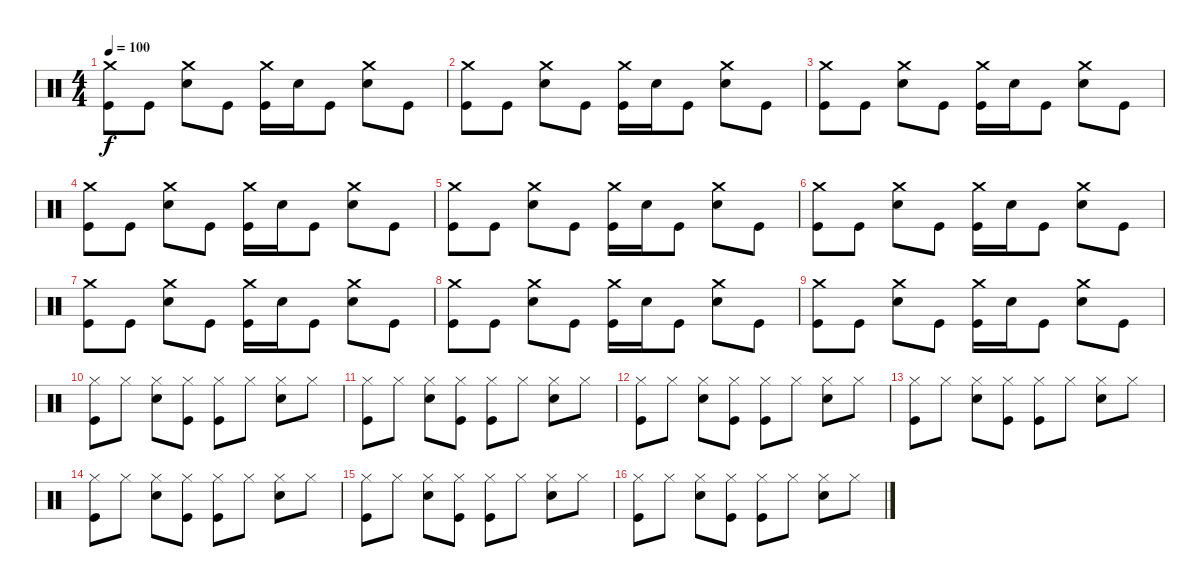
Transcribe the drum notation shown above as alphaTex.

\track "" {instrument percussion}
\staff {score}
\articulation defaults
\ts (4 4)
\tempo 100
\clef neutral
\ks c
("Crash medium (hit)" "Kick (hit)").8{dy f} "Kick (hit)".8 ("Crash medium (hit)" "Electric Snare (hit)").8 "Kick (hit)".8 ("Crash medium (hit)" "Kick (hit)").16 "Electric Snare (hit)".16 "Kick (hit)".8 ("Crash medium (hit)" "Electric Snare (hit)").8 "Kick (hit)".8 |
("Crash medium (hit)" "Kick (hit)").8 "Kick (hit)".8 ("Crash medium (hit)" "Electric Snare (hit)").8 "Kick (hit)".8 ("Crash medium (hit)" "Kick (hit)").16 "Electric Snare (hit)".16 "Kick (hit)".8 ("Crash medium (hit)" "Electric Snare (hit)").8 "Kick (hit)".8 |
("Crash medium (hit)" "Kick (hit)").8 "Kick (hit)".8 ("Crash medium (hit)" "Electric Snare (hit)").8 "Kick (hit)".8 ("Crash medium (hit)" "Kick (hit)").16 "Electric Snare (hit)".16 "Kick (hit)".8 ("Crash medium (hit)" "Electric Snare (hit)").8 "Kick (hit)".8 |
("Crash medium (hit)" "Kick (hit)").8 "Kick (hit)".8 ("Crash medium (hit)" "Electric Snare (hit)").8 "Kick (hit)".8 ("Crash medium (hit)" "Kick (hit)").16 "Electric Snare (hit)".16 "Kick (hit)".8 ("Crash medium (hit)" "Electric Snare (hit)").8 "Kick (hit)".8 |
("Crash medium (hit)" "Kick (hit)").8 "Kick (hit)".8 ("Crash medium (hit)" "Electric Snare (hit)").8 "Kick (hit)".8 ("Crash medium (hit)" "Kick (hit)").16 "Electric Snare (hit)".16 "Kick (hit)".8 ("Crash medium (hit)" "Electric Snare (hit)").8 "Kick (hit)".8 |
("Crash medium (hit)" "Kick (hit)").8 "Kick (hit)".8 ("Crash medium (hit)" "Electric Snare (hit)").8 "Kick (hit)".8 ("Crash medium (hit)" "Kick (hit)").16 "Electric Snare (hit)".16 "Kick (hit)".8 ("Crash medium (hit)" "Electric Snare (hit)").8 "Kick (hit)".8 |
("Crash medium (hit)" "Kick (hit)").8 "Kick (hit)".8 ("Crash medium (hit)" "Electric Snare (hit)").8 "Kick (hit)".8 ("Crash medium (hit)" "Kick (hit)").16 "Electric Snare (hit)".16 "Kick (hit)".8 ("Crash medium (hit)" "Electric Snare (hit)").8 "Kick (hit)".8 |
("Crash medium (hit)" "Kick (hit)").8 "Kick (hit)".8 ("Crash medium (hit)" "Electric Snare (hit)").8 "Kick (hit)".8 ("Crash medium (hit)" "Kick (hit)").16 "Electric Snare (hit)".16 "Kick (hit)".8 ("Crash medium (hit)" "Electric Snare (hit)").8 "Kick (hit)".8 |
("Crash medium (hit)" "Kick (hit)").8 "Kick (hit)".8 ("Crash medium (hit)" "Electric Snare (hit)").8 "Kick (hit)".8 ("Crash medium (hit)" "Kick (hit)").16 "Electric Snare (hit)".16 "Kick (hit)".8 ("Crash medium (hit)" "Electric Snare (hit)").8 "Kick (hit)".8 |
("Hi-Hat (closed)" "Kick (hit)").8 "Hi-Hat (closed)".8 ("Hi-Hat (closed)" "Electric Snare (hit)").8 ("Hi-Hat (closed)" "Kick (hit)").8 ("Hi-Hat (closed)" "Kick (hit)").8 "Hi-Hat (closed)".8 ("Hi-Hat (closed)" "Electric Snare (hit)").8 "Hi-Hat (closed)".8 |
("Hi-Hat (closed)" "Kick (hit)").8 "Hi-Hat (closed)".8 ("Hi-Hat (closed)" "Electric Snare (hit)").8 ("Hi-Hat (closed)" "Kick (hit)").8 ("Hi-Hat (closed)" "Kick (hit)").8 "Hi-Hat (closed)".8 ("Hi-Hat (closed)" "Electric Snare (hit)").8 "Hi-Hat (closed)".8 |
("Hi-Hat (closed)" "Kick (hit)").8 "Hi-Hat (closed)".8 ("Hi-Hat (closed)" "Electric Snare (hit)").8 ("Hi-Hat (closed)" "Kick (hit)").8 ("Hi-Hat (closed)" "Kick (hit)").8 "Hi-Hat (closed)".8 ("Hi-Hat (closed)" "Electric Snare (hit)").8 "Hi-Hat (closed)".8 |
("Hi-Hat (closed)" "Kick (hit)").8 "Hi-Hat (closed)".8 ("Hi-Hat (closed)" "Electric Snare (hit)").8 ("Hi-Hat (closed)" "Kick (hit)").8 ("Hi-Hat (closed)" "Kick (hit)").8 "Hi-Hat (closed)".8 ("Hi-Hat (closed)" "Electric Snare (hit)").8 "Hi-Hat (closed)".8 |
("Hi-Hat (closed)" "Kick (hit)").8 "Hi-Hat (closed)".8 ("Hi-Hat (closed)" "Electric Snare (hit)").8 ("Hi-Hat (closed)" "Kick (hit)").8 ("Hi-Hat (closed)" "Kick (hit)").8 "Hi-Hat (closed)".8 ("Hi-Hat (closed)" "Electric Snare (hit)").8 "Hi-Hat (closed)".8 |
("Hi-Hat (closed)" "Kick (hit)").8 "Hi-Hat (closed)".8 ("Hi-Hat (closed)" "Electric Snare (hit)").8 ("Hi-Hat (closed)" "Kick (hit)").8 ("Hi-Hat (closed)" "Kick (hit)").8 "Hi-Hat (closed)".8 ("Hi-Hat (closed)" "Electric Snare (hit)").8 "Hi-Hat (closed)".8 |
("Hi-Hat (closed)" "Kick (hit)").8 "Hi-Hat (closed)".8 ("Hi-Hat (closed)" "Electric Snare (hit)").8 ("Hi-Hat (closed)" "Kick (hit)").8 ("Hi-Hat (closed)" "Kick (hit)").8 "Hi-Hat (closed)".8 ("Hi-Hat (closed)" "Electric Snare (hit)").8 "Hi-Hat (closed)".8
